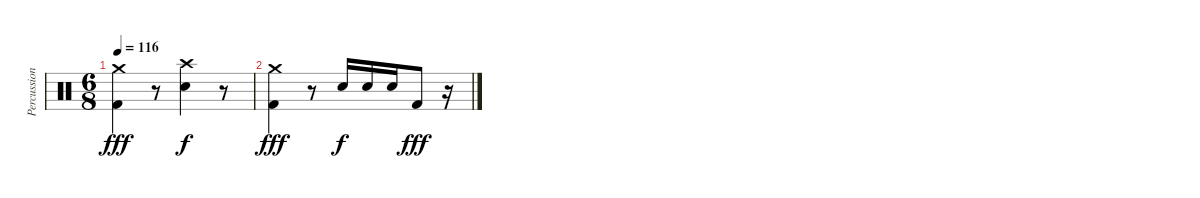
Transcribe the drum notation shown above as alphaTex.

\track ("Percussions" "Percussion") {instrument percussion}
\staff {score}
\articulation defaults
\ts (6 8)
\tempo 116
\clef neutral
\ks c
("Crash medium (hit)" "Kick (hit) 2").4{dy fff} r.8 ("Crash high (hit)" "Snare (hit) 2").4{dy f} r.8 |
("Crash medium (hit)" "Kick (hit) 2").4{dy fff} r.8 "Snare (hit) 2".16{dy f} "Snare (hit) 2".16 "Snare (hit) 2".16 "Kick (hit) 2".8{dy fff} r.16
